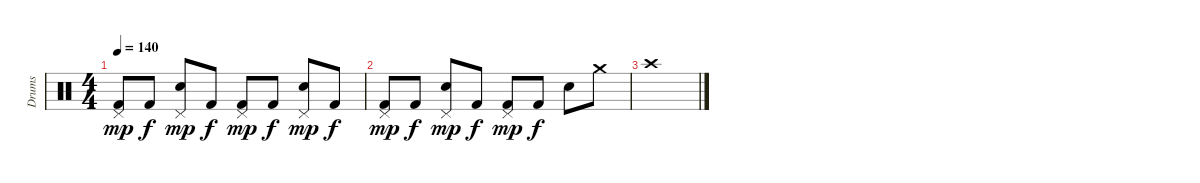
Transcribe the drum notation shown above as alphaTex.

\track ("Drums" "Drums") {instrument percussion}
\staff {score}
\articulation defaults
\ts (4 4)
\tempo 140
\clef neutral
\ks c
("Pedal Hi-Hat (hit)" "Kick (hit) 2").8{dy mp} "Kick (hit) 2".8{dy f} ("Pedal Hi-Hat (hit)" "Snare (hit) 2").8{dy mp} "Kick (hit) 2".8{dy f} ("Pedal Hi-Hat (hit)" "Kick (hit) 2").8{dy mp} "Kick (hit) 2".8{dy f} ("Pedal Hi-Hat (hit)" "Snare (hit) 2").8{dy mp} "Kick (hit) 2".8{dy f} |
("Pedal Hi-Hat (hit)" "Kick (hit) 2").8{dy mp} "Kick (hit) 2".8{dy f} ("Pedal Hi-Hat (hit)" "Snare (hit) 2").8{dy mp} "Kick (hit) 2".8{dy f} ("Pedal Hi-Hat (hit)" "Kick (hit) 2").8{dy mp} "Kick (hit) 2".8{dy f} "Snare (hit) 2".8 "Crash medium (hit)".8 |
"Crash high (hit)".1
